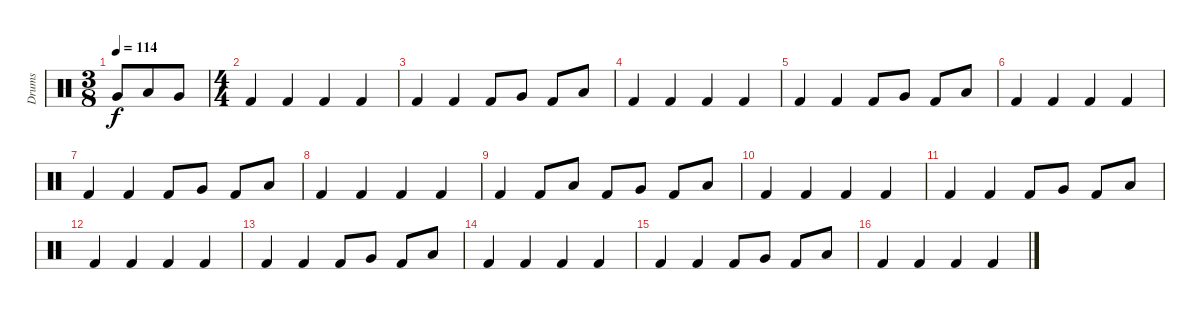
\track ("Drums" "Drums") {instrument percussion}
\staff {score}
\articulation defaults
\ts (3 8)
\tempo 114
\clef neutral
\ks c "Very Low Tom (hit)".8{dy f} "Low Floor Tom (hit)".8 "Very Low Tom (hit)".8
|
\ts (4 4)
"Kick (hit) 2".4 "Kick (hit) 2".4 "Kick (hit) 2".4 "Kick (hit) 2".4 |
"Kick (hit) 2".4 "Kick (hit) 2".4 "Kick (hit) 2".8 "Very Low Tom (hit)".8 "Kick (hit) 2".8 "Low Floor Tom (hit)".8 |
"Kick (hit) 2".4 "Kick (hit) 2".4 "Kick (hit) 2".4 "Kick (hit) 2".4 |
"Kick (hit) 2".4 "Kick (hit) 2".4 "Kick (hit) 2".8 "Very Low Tom (hit)".8 "Kick (hit) 2".8 "Low Floor Tom (hit)".8 |
"Kick (hit) 2".4 "Kick (hit) 2".4 "Kick (hit) 2".4 "Kick (hit) 2".4 |
"Kick (hit) 2".4 "Kick (hit) 2".4 "Kick (hit) 2".8 "Very Low Tom (hit)".8 "Kick (hit) 2".8 "Low Floor Tom (hit)".8 |
"Kick (hit) 2".4 "Kick (hit) 2".4 "Kick (hit) 2".4 "Kick (hit) 2".4 |
"Kick (hit) 2".4 "Kick (hit) 2".8 "Low Tom (hit)".8 "Kick (hit) 2".8 "Very Low Tom (hit)".8 "Kick (hit) 2".8 "Low Floor Tom (hit)".8 |
"Kick (hit) 2".4 "Kick (hit) 2".4 "Kick (hit) 2".4 "Kick (hit) 2".4 |
"Kick (hit) 2".4 "Kick (hit) 2".4 "Kick (hit) 2".8 "Very Low Tom (hit)".8 "Kick (hit) 2".8 "Low Floor Tom (hit)".8 |
"Kick (hit) 2".4 "Kick (hit) 2".4 "Kick (hit) 2".4 "Kick (hit) 2".4 |
"Kick (hit) 2".4 "Kick (hit) 2".4 "Kick (hit) 2".8 "Very Low Tom (hit)".8 "Kick (hit) 2".8 "Low Floor Tom (hit)".8 |
"Kick (hit) 2".4 "Kick (hit) 2".4 "Kick (hit) 2".4 "Kick (hit) 2".4 |
"Kick (hit) 2".4 "Kick (hit) 2".4 "Kick (hit) 2".8 "Very Low Tom (hit)".8 "Kick (hit) 2".8 "Low Floor Tom (hit)".8 |
"Kick (hit) 2".4 "Kick (hit) 2".4 "Kick (hit) 2".4 "Kick (hit) 2".4
